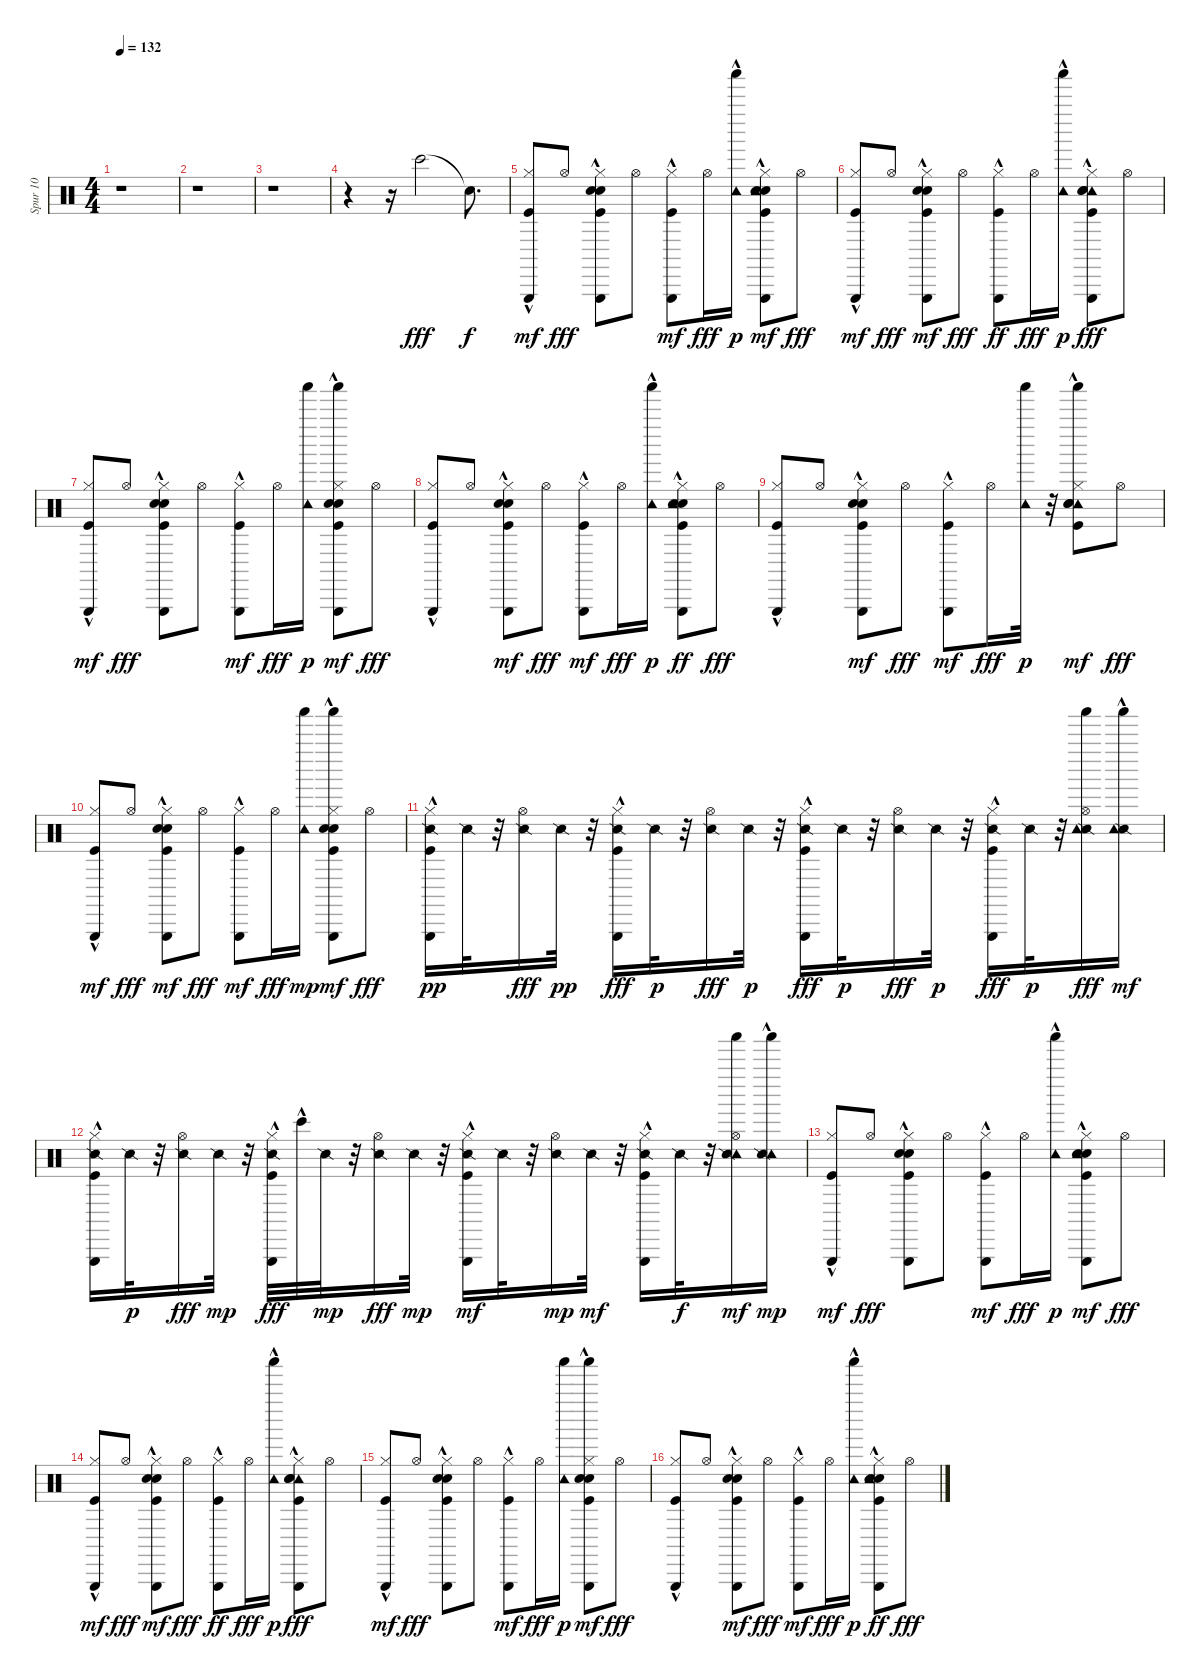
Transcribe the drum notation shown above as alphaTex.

\track ("Spur 10" "Spur 10") {instrument percussion}
\staff {score}
\articulation defaults
\ts (4 4)
\tempo 132
\clef neutral
\ks c
r.1{dy f} |
r.1 |
r.1 |
r.4 r.16 "Bongo High (hit)".2{dy fff} "Snare (hit)"{t}.8{d dy f} |
("Kick (hit)"{hac} "Hi-Hat (closed)" "Triangle (hit)"{hac}).8{dy mf} "Hi-Hat (open)".8{dy fff} ("Triangle (hit)"{hac} "Kick (hit)"{hac} "Hand Clap (hit)"{hac} "Snare (hit) 2"{hac} "Hi-Hat (closed)").8 "Hi-Hat (open)".8 ("Kick (hit)"{hac} "Hi-Hat (closed)" "Triangle (hit)"{hac}).8{dy mf} "Hi-Hat (open)".16{dy fff} ("Tambourine (hit)" "Shaker (hit)"{hac}).16{dy p} ("Kick (hit)"{hac} "Snare (hit) 2"{hac} "Hand Clap (hit)"{hac} "Hi-Hat (closed)" "Triangle (hit)"{hac} "Tambourine (hit)"{hac}).8{dy mf} "Hi-Hat (open)".8{dy fff} |
("Kick (hit)"{hac} "Hi-Hat (closed)" "Triangle (hit)"{hac}).8{dy mf} "Hi-Hat (open)".8{dy fff} ("Triangle (hit)"{hac} "Hi-Hat (closed)" "Kick (hit)"{hac} "Hand Clap (hit)"{hac} "Snare (hit) 2"{hac}).8{dy mf} "Hi-Hat (open)".8{dy fff} ("Triangle (hit)"{hac} "Kick (hit)"{hac} "Hi-Hat (closed)").8{dy ff} "Hi-Hat (open)".16{dy fff} ("Tambourine (hit)" "Shaker (hit)"{hac}).16{dy p} ("Tambourine (hit)"{hac} "Triangle (hit)"{hac} "Kick (hit)"{hac} "Snare (hit) 2"{hac} "Hand Clap (hit)"{hac} "Hi-Hat (closed)").8{dy fff} "Hi-Hat (open)".8 |
("Kick (hit)"{hac} "Hi-Hat (closed)" "Triangle (hit)"{hac}).8{dy mf} "Hi-Hat (open)".8{dy fff} ("Triangle (hit)"{hac} "Hi-Hat (closed)" "Hand Clap (hit)"{hac} "Snare (hit) 2"{hac} "Kick (hit)"{hac}).8 "Hi-Hat (open)".8 ("Hi-Hat (closed)" "Kick (hit)"{hac} "Triangle (hit)"{hac}).8{dy mf} "Hi-Hat (open)".16{dy fff} ("Shaker (hit)" "Tambourine (hit)").16{dy p} ("Shaker (hit)" "Triangle (hit)"{hac} "Hi-Hat (closed)" "Kick (hit)"{hac} "Hand Clap (hit)"{hac} "Snare (hit) 2"{hac}).8{dy mf} "Hi-Hat (open)".8{dy fff} |
("Triangle (hit)"{hac} "Hi-Hat (closed)" "Kick (hit)"{hac}).8 "Hi-Hat (open)".8 ("Hi-Hat (closed)" "Kick (hit)"{hac} "Snare (hit) 2"{hac} "Hand Clap (hit)"{hac} "Triangle (hit)"{hac}).8{dy mf} "Hi-Hat (open)".8{dy fff} ("Kick (hit)"{hac} "Hi-Hat (closed)" "Triangle (hit)"{hac}).8{dy mf} "Hi-Hat (open)".16{dy fff} ("Tambourine (hit)" "Shaker (hit)"{hac}).16{dy p} ("Triangle (hit)"{hac} "Hi-Hat (closed)" "Hand Clap (hit)"{hac} "Snare (hit) 2"{hac} "Kick (hit)"{hac} "Tambourine (hit)").8{dy ff} "Hi-Hat (open)".8{dy fff} |
("Triangle (hit)"{hac} "Kick (hit)"{hac} "Hi-Hat (closed)").8 "Hi-Hat (open)".8 ("Kick (hit)"{hac} "Hand Clap (hit)"{hac} "Snare (hit) 2"{hac} "Hi-Hat (closed)" "Triangle (hit)"{hac}).8{dy mf} "Hi-Hat (open)".8{dy fff} ("Hi-Hat (closed)" "Kick (hit)"{hac} "Triangle (hit)"{hac}).8{dy mf} "Hi-Hat (open)".16{dy fff} ("Tambourine (hit)" "Shaker (hit)").32{dy p} r.32 ("Shaker (hit)" "Tambourine (hit)"{hac} "Hi-Hat (closed)" "Kick (hit)"{hac} "Hand Clap (hit)"{hac} "Snare (hit) 2"{hac}).8{dy mf} "Hi-Hat (open)".8{dy fff} |
("Hi-Hat (closed)" "Kick (hit)"{hac} "Triangle (hit)"{hac}).8{dy mf} "Hi-Hat (open)".8{dy fff} ("Hi-Hat (closed)" "Kick (hit)"{hac} "Snare (hit) 2"{hac} "Hand Clap (hit)"{hac} "Triangle (hit)"{hac}).8{dy mf} "Hi-Hat (open)".8{dy fff} ("Kick (hit)"{hac} "Hi-Hat (closed)" "Triangle (hit)"{hac}).8{dy mf} "Hi-Hat (open)".16{dy fff} ("Shaker (hit)" "Tambourine (hit)").16{dy mp} ("Shaker (hit)"{hac} "Triangle (hit)"{hac} "Hi-Hat (closed)" "Kick (hit)" "Hand Clap (hit)" "Snare (hit) 2").8{dy mf} "Hi-Hat (open)".8{dy fff} |
("Triangle (hit)"{hac} "Hi-Hat (closed)" "Kick (hit)" "Snare (side stick) 2").16{dy pp} "Snare (side stick) 2".32 r.32 ("Snare (side stick) 2" "Hi-Hat (open)").16{dy fff} "Snare (side stick) 2".32{dy pp} r.32 ("Triangle (hit)"{hac} "Kick (hit)" "Snare (side stick) 2" "Hi-Hat (closed)").16{dy fff} "Snare (side stick) 2".32{dy p} r.32 ("Snare (side stick) 2" "Hi-Hat (open)").16{dy fff} "Snare (side stick) 2".32{dy p} r.32 ("Snare (side stick) 2" "Hi-Hat (closed)" "Kick (hit)" "Triangle (hit)"{hac}).16{dy fff} "Snare (side stick) 2".32{dy p} r.32 ("Snare (side stick) 2" "Hi-Hat (open)").16{dy fff} "Snare (side stick) 2".32{dy p} r.32 ("Triangle (hit)"{hac} "Hi-Hat (closed)" "Snare (side stick) 2" "Kick (hit)").16{dy fff} "Snare (side stick) 2".32{dy p} r.32 ("Shaker (hit)" "Snare (side stick) 2" "Tambourine (hit)" "Hi-Hat (open)").16{dy fff} ("Shaker (hit)"{hac} "Snare (side stick) 2" "Tambourine (hit)").16{dy mf} |
("Snare (side stick) 2" "Hi-Hat (closed)" "Kick (hit)" "Triangle (hit)"{hac}).16 "Snare (side stick) 2".32{dy p} r.32 ("Snare (side stick) 2" "Hi-Hat (open)").16{dy fff} "Snare (side stick) 2".32{dy mp} r.32 ("Triangle (hit)"{hac} "Kick (hit)" "Snare (side stick) 2" "Hi-Hat (closed)").32{dy fff} "Bongo High (hit)"{hac}.32 "Snare (side stick) 2".32{dy mp} r.32 ("Snare (side stick) 2" "Hi-Hat (open)").16{dy fff} "Snare (side stick) 2".32{dy mp} r.32 ("Triangle (hit)"{hac} "Hi-Hat (closed)" "Kick (hit)" "Snare (side stick) 2").16{dy mf} "Snare (side stick) 2".32 r.32 ("Hi-Hat (open)" "Snare (side stick) 2").16{dy mp} "Snare (side stick) 2".32{dy mf} r.32 ("Kick (hit)"{hac} "Hi-Hat (closed)" "Snare (side stick) 2" "Triangle (hit)"{hac}).16 "Snare (side stick) 2".32{dy f} r.32 ("Hi-Hat (open)" "Shaker (hit)" "Tambourine (hit)" "Snare (side stick) 2").16{dy mf} ("Shaker (hit)"{hac} "Tambourine (hit)" "Snare (side stick) 2").16{dy mp} |
("Kick (hit)"{hac} "Hi-Hat (closed)" "Triangle (hit)"{hac}).8{dy mf} "Hi-Hat (open)".8{dy fff} ("Triangle (hit)"{hac} "Kick (hit)"{hac} "Hand Clap (hit)"{hac} "Snare (hit) 2"{hac} "Hi-Hat (closed)").8 "Hi-Hat (open)".8 ("Kick (hit)"{hac} "Hi-Hat (closed)" "Triangle (hit)"{hac}).8{dy mf} "Hi-Hat (open)".16{dy fff} ("Tambourine (hit)" "Shaker (hit)"{hac}).16{dy p} ("Kick (hit)"{hac} "Snare (hit) 2"{hac} "Hand Clap (hit)"{hac} "Hi-Hat (closed)" "Triangle (hit)"{hac} "Tambourine (hit)"{hac}).8{dy mf} "Hi-Hat (open)".8{dy fff} |
("Kick (hit)"{hac} "Hi-Hat (closed)" "Triangle (hit)"{hac}).8{dy mf} "Hi-Hat (open)".8{dy fff} ("Triangle (hit)"{hac} "Hi-Hat (closed)" "Kick (hit)"{hac} "Hand Clap (hit)"{hac} "Snare (hit) 2"{hac}).8{dy mf} "Hi-Hat (open)".8{dy fff} ("Triangle (hit)"{hac} "Kick (hit)"{hac} "Hi-Hat (closed)").8{dy ff} "Hi-Hat (open)".16{dy fff} ("Tambourine (hit)" "Shaker (hit)"{hac}).16{dy p} ("Tambourine (hit)"{hac} "Triangle (hit)"{hac} "Kick (hit)"{hac} "Snare (hit) 2"{hac} "Hand Clap (hit)"{hac} "Hi-Hat (closed)").8{dy fff} "Hi-Hat (open)".8 |
("Kick (hit)"{hac} "Hi-Hat (closed)" "Triangle (hit)"{hac}).8{dy mf} "Hi-Hat (open)".8{dy fff} ("Triangle (hit)"{hac} "Hi-Hat (closed)" "Hand Clap (hit)"{hac} "Snare (hit) 2"{hac} "Kick (hit)"{hac}).8 "Hi-Hat (open)".8 ("Hi-Hat (closed)" "Kick (hit)"{hac} "Triangle (hit)"{hac}).8{dy mf} "Hi-Hat (open)".16{dy fff} ("Shaker (hit)" "Tambourine (hit)").16{dy p} ("Shaker (hit)" "Triangle (hit)"{hac} "Hi-Hat (closed)" "Kick (hit)"{hac} "Hand Clap (hit)"{hac} "Snare (hit) 2"{hac}).8{dy mf} "Hi-Hat (open)".8{dy fff} |
("Triangle (hit)"{hac} "Hi-Hat (closed)" "Kick (hit)"{hac}).8 "Hi-Hat (open)".8 ("Hi-Hat (closed)" "Kick (hit)"{hac} "Snare (hit) 2"{hac} "Hand Clap (hit)"{hac} "Triangle (hit)"{hac}).8{dy mf} "Hi-Hat (open)".8{dy fff} ("Kick (hit)"{hac} "Hi-Hat (closed)" "Triangle (hit)"{hac}).8{dy mf} "Hi-Hat (open)".16{dy fff} ("Tambourine (hit)" "Shaker (hit)"{hac}).16{dy p} ("Triangle (hit)"{hac} "Hi-Hat (closed)" "Hand Clap (hit)"{hac} "Snare (hit) 2"{hac} "Kick (hit)"{hac} "Tambourine (hit)").8{dy ff} "Hi-Hat (open)".8{dy fff}
